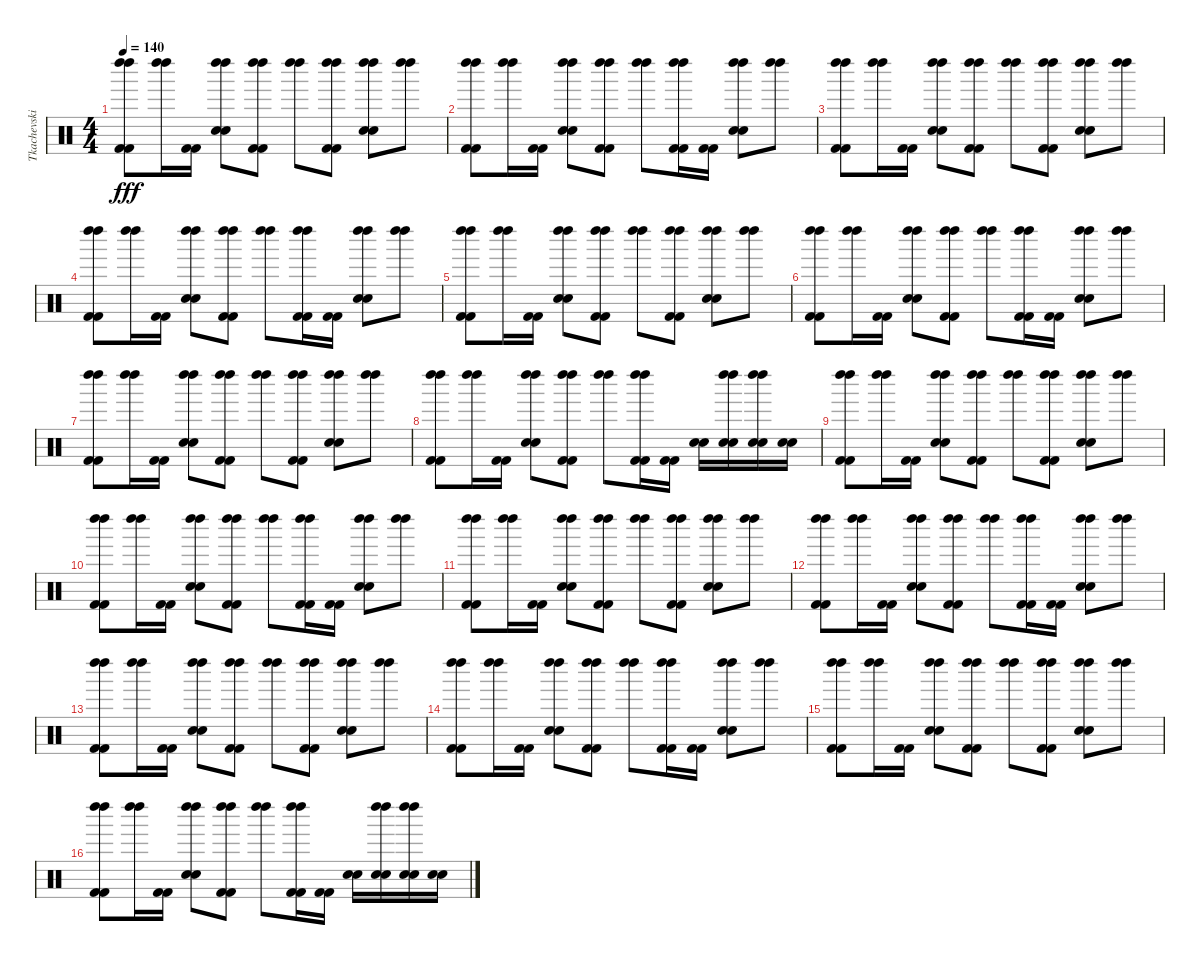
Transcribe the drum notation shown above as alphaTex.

\track ("Tkachevskiy A" "Tkachevski") {instrument percussion}
\staff {score}
\articulation defaults
\ts (4 4)
\tempo 140
\clef neutral
\ks c
("Kick (hit) 2" "Left Maraca (hit)" "Kick (hit) 2" "Left Maraca (hit)").8{dy fff} ("Left Maraca (hit)" "Left Maraca (hit)").16 ("Kick (hit) 2" "Kick (hit) 2").16 ("Snare (hit) 2" "Left Maraca (hit)" "Snare (hit) 2" "Left Maraca (hit)").8 ("Kick (hit) 2" "Left Maraca (hit)" "Kick (hit) 2" "Left Maraca (hit)").8 ("Left Maraca (hit)" "Left Maraca (hit)").8 ("Kick (hit) 2" "Left Maraca (hit)" "Kick (hit) 2" "Left Maraca (hit)").8 ("Snare (hit) 2" "Left Maraca (hit)" "Snare (hit) 2" "Left Maraca (hit)").8 ("Left Maraca (hit)" "Left Maraca (hit)").8 |
("Kick (hit) 2" "Left Maraca (hit)" "Kick (hit) 2" "Left Maraca (hit)").8 ("Left Maraca (hit)" "Left Maraca (hit)").16 ("Kick (hit) 2" "Kick (hit) 2").16 ("Snare (hit) 2" "Left Maraca (hit)" "Snare (hit) 2" "Left Maraca (hit)").8 ("Kick (hit) 2" "Left Maraca (hit)" "Kick (hit) 2" "Left Maraca (hit)").8 ("Left Maraca (hit)" "Left Maraca (hit)").8 ("Kick (hit) 2" "Left Maraca (hit)" "Kick (hit) 2" "Left Maraca (hit)").16 ("Kick (hit) 2" "Kick (hit) 2").16 ("Snare (hit) 2" "Left Maraca (hit)" "Snare (hit) 2" "Left Maraca (hit)").8 ("Left Maraca (hit)" "Left Maraca (hit)").8 |
("Kick (hit) 2" "Left Maraca (hit)" "Kick (hit) 2" "Left Maraca (hit)").8 ("Left Maraca (hit)" "Left Maraca (hit)").16 ("Kick (hit) 2" "Kick (hit) 2").16 ("Snare (hit) 2" "Left Maraca (hit)" "Snare (hit) 2" "Left Maraca (hit)").8 ("Kick (hit) 2" "Left Maraca (hit)" "Kick (hit) 2" "Left Maraca (hit)").8 ("Left Maraca (hit)" "Left Maraca (hit)").8 ("Kick (hit) 2" "Left Maraca (hit)" "Kick (hit) 2" "Left Maraca (hit)").8 ("Snare (hit) 2" "Left Maraca (hit)" "Snare (hit) 2" "Left Maraca (hit)").8 ("Left Maraca (hit)" "Left Maraca (hit)").8 |
("Kick (hit) 2" "Left Maraca (hit)" "Kick (hit) 2" "Left Maraca (hit)").8 ("Left Maraca (hit)" "Left Maraca (hit)").16 ("Kick (hit) 2" "Kick (hit) 2").16 ("Snare (hit) 2" "Left Maraca (hit)" "Snare (hit) 2" "Left Maraca (hit)").8 ("Kick (hit) 2" "Left Maraca (hit)" "Kick (hit) 2" "Left Maraca (hit)").8 ("Left Maraca (hit)" "Left Maraca (hit)").8 ("Kick (hit) 2" "Left Maraca (hit)" "Kick (hit) 2" "Left Maraca (hit)").16 ("Kick (hit) 2" "Kick (hit) 2").16 ("Snare (hit) 2" "Left Maraca (hit)" "Snare (hit) 2" "Left Maraca (hit)").8 ("Left Maraca (hit)" "Left Maraca (hit)").8 |
("Kick (hit) 2" "Left Maraca (hit)" "Kick (hit) 2" "Left Maraca (hit)").8 ("Left Maraca (hit)" "Left Maraca (hit)").16 ("Kick (hit) 2" "Kick (hit) 2").16 ("Snare (hit) 2" "Left Maraca (hit)" "Snare (hit) 2" "Left Maraca (hit)").8 ("Kick (hit) 2" "Left Maraca (hit)" "Kick (hit) 2" "Left Maraca (hit)").8 ("Left Maraca (hit)" "Left Maraca (hit)").8 ("Kick (hit) 2" "Left Maraca (hit)" "Kick (hit) 2" "Left Maraca (hit)").8 ("Snare (hit) 2" "Left Maraca (hit)" "Snare (hit) 2" "Left Maraca (hit)").8 ("Left Maraca (hit)" "Left Maraca (hit)").8 |
("Kick (hit) 2" "Left Maraca (hit)" "Kick (hit) 2" "Left Maraca (hit)").8 ("Left Maraca (hit)" "Left Maraca (hit)").16 ("Kick (hit) 2" "Kick (hit) 2").16 ("Snare (hit) 2" "Left Maraca (hit)" "Snare (hit) 2" "Left Maraca (hit)").8 ("Kick (hit) 2" "Left Maraca (hit)" "Kick (hit) 2" "Left Maraca (hit)").8 ("Left Maraca (hit)" "Left Maraca (hit)").8 ("Kick (hit) 2" "Left Maraca (hit)" "Kick (hit) 2" "Left Maraca (hit)").16 ("Kick (hit) 2" "Kick (hit) 2").16 ("Snare (hit) 2" "Left Maraca (hit)" "Snare (hit) 2" "Left Maraca (hit)").8 ("Left Maraca (hit)" "Left Maraca (hit)").8 |
("Kick (hit) 2" "Left Maraca (hit)" "Kick (hit) 2" "Left Maraca (hit)").8 ("Left Maraca (hit)" "Left Maraca (hit)").16 ("Kick (hit) 2" "Kick (hit) 2").16 ("Snare (hit) 2" "Left Maraca (hit)" "Snare (hit) 2" "Left Maraca (hit)").8 ("Kick (hit) 2" "Left Maraca (hit)" "Kick (hit) 2" "Left Maraca (hit)").8 ("Left Maraca (hit)" "Left Maraca (hit)").8 ("Kick (hit) 2" "Left Maraca (hit)" "Kick (hit) 2" "Left Maraca (hit)").8 ("Snare (hit) 2" "Left Maraca (hit)" "Snare (hit) 2" "Left Maraca (hit)").8 ("Left Maraca (hit)" "Left Maraca (hit)").8 |
("Kick (hit) 2" "Left Maraca (hit)" "Kick (hit) 2" "Left Maraca (hit)").8 ("Left Maraca (hit)" "Left Maraca (hit)").16 ("Kick (hit) 2" "Kick (hit) 2").16 ("Snare (hit) 2" "Left Maraca (hit)" "Snare (hit) 2" "Left Maraca (hit)").8 ("Kick (hit) 2" "Left Maraca (hit)" "Kick (hit) 2" "Left Maraca (hit)").8 ("Left Maraca (hit)" "Left Maraca (hit)").8 ("Kick (hit) 2" "Left Maraca (hit)" "Kick (hit) 2" "Left Maraca (hit)").16 ("Kick (hit) 2" "Kick (hit) 2").16 ("Snare (hit) 2" "Snare (hit) 2").16 ("Snare (hit) 2" "Left Maraca (hit)" "Snare (hit) 2" "Left Maraca (hit)").16 ("Snare (hit) 2" "Left Maraca (hit)" "Snare (hit) 2" "Left Maraca (hit)").16 ("Snare (hit) 2" "Snare (hit) 2").16 |
("Kick (hit) 2" "Left Maraca (hit)" "Kick (hit) 2" "Left Maraca (hit)").8 ("Left Maraca (hit)" "Left Maraca (hit)").16 ("Kick (hit) 2" "Kick (hit) 2").16 ("Snare (hit) 2" "Left Maraca (hit)" "Snare (hit) 2" "Left Maraca (hit)").8 ("Kick (hit) 2" "Left Maraca (hit)" "Kick (hit) 2" "Left Maraca (hit)").8 ("Left Maraca (hit)" "Left Maraca (hit)").8 ("Kick (hit) 2" "Left Maraca (hit)" "Kick (hit) 2" "Left Maraca (hit)").8 ("Snare (hit) 2" "Left Maraca (hit)" "Snare (hit) 2" "Left Maraca (hit)").8 ("Left Maraca (hit)" "Left Maraca (hit)").8 |
("Kick (hit) 2" "Left Maraca (hit)" "Kick (hit) 2" "Left Maraca (hit)").8 ("Left Maraca (hit)" "Left Maraca (hit)").16 ("Kick (hit) 2" "Kick (hit) 2").16 ("Snare (hit) 2" "Left Maraca (hit)" "Snare (hit) 2" "Left Maraca (hit)").8 ("Kick (hit) 2" "Left Maraca (hit)" "Kick (hit) 2" "Left Maraca (hit)").8 ("Left Maraca (hit)" "Left Maraca (hit)").8 ("Kick (hit) 2" "Left Maraca (hit)" "Kick (hit) 2" "Left Maraca (hit)").16 ("Kick (hit) 2" "Kick (hit) 2").16 ("Snare (hit) 2" "Left Maraca (hit)" "Snare (hit) 2" "Left Maraca (hit)").8 ("Left Maraca (hit)" "Left Maraca (hit)").8 |
("Kick (hit) 2" "Left Maraca (hit)" "Kick (hit) 2" "Left Maraca (hit)").8 ("Left Maraca (hit)" "Left Maraca (hit)").16 ("Kick (hit) 2" "Kick (hit) 2").16 ("Snare (hit) 2" "Left Maraca (hit)" "Snare (hit) 2" "Left Maraca (hit)").8 ("Kick (hit) 2" "Left Maraca (hit)" "Kick (hit) 2" "Left Maraca (hit)").8 ("Left Maraca (hit)" "Left Maraca (hit)").8 ("Kick (hit) 2" "Left Maraca (hit)" "Kick (hit) 2" "Left Maraca (hit)").8 ("Snare (hit) 2" "Left Maraca (hit)" "Snare (hit) 2" "Left Maraca (hit)").8 ("Left Maraca (hit)" "Left Maraca (hit)").8 |
("Kick (hit) 2" "Left Maraca (hit)" "Kick (hit) 2" "Left Maraca (hit)").8 ("Left Maraca (hit)" "Left Maraca (hit)").16 ("Kick (hit) 2" "Kick (hit) 2").16 ("Snare (hit) 2" "Left Maraca (hit)" "Snare (hit) 2" "Left Maraca (hit)").8 ("Kick (hit) 2" "Left Maraca (hit)" "Kick (hit) 2" "Left Maraca (hit)").8 ("Left Maraca (hit)" "Left Maraca (hit)").8 ("Kick (hit) 2" "Left Maraca (hit)" "Kick (hit) 2" "Left Maraca (hit)").16 ("Kick (hit) 2" "Kick (hit) 2").16 ("Snare (hit) 2" "Left Maraca (hit)" "Snare (hit) 2" "Left Maraca (hit)").8 ("Left Maraca (hit)" "Left Maraca (hit)").8 |
("Kick (hit) 2" "Left Maraca (hit)" "Kick (hit) 2" "Left Maraca (hit)").8 ("Left Maraca (hit)" "Left Maraca (hit)").16 ("Kick (hit) 2" "Kick (hit) 2").16 ("Snare (hit) 2" "Left Maraca (hit)" "Snare (hit) 2" "Left Maraca (hit)").8 ("Kick (hit) 2" "Left Maraca (hit)" "Kick (hit) 2" "Left Maraca (hit)").8 ("Left Maraca (hit)" "Left Maraca (hit)").8 ("Kick (hit) 2" "Left Maraca (hit)" "Kick (hit) 2" "Left Maraca (hit)").8 ("Snare (hit) 2" "Left Maraca (hit)" "Snare (hit) 2" "Left Maraca (hit)").8 ("Left Maraca (hit)" "Left Maraca (hit)").8 |
("Kick (hit) 2" "Left Maraca (hit)" "Kick (hit) 2" "Left Maraca (hit)").8 ("Left Maraca (hit)" "Left Maraca (hit)").16 ("Kick (hit) 2" "Kick (hit) 2").16 ("Snare (hit) 2" "Left Maraca (hit)" "Snare (hit) 2" "Left Maraca (hit)").8 ("Kick (hit) 2" "Left Maraca (hit)" "Kick (hit) 2" "Left Maraca (hit)").8 ("Left Maraca (hit)" "Left Maraca (hit)").8 ("Kick (hit) 2" "Left Maraca (hit)" "Kick (hit) 2" "Left Maraca (hit)").16 ("Kick (hit) 2" "Kick (hit) 2").16 ("Snare (hit) 2" "Left Maraca (hit)" "Snare (hit) 2" "Left Maraca (hit)").8 ("Left Maraca (hit)" "Left Maraca (hit)").8 |
("Kick (hit) 2" "Left Maraca (hit)" "Kick (hit) 2" "Left Maraca (hit)").8 ("Left Maraca (hit)" "Left Maraca (hit)").16 ("Kick (hit) 2" "Kick (hit) 2").16 ("Snare (hit) 2" "Left Maraca (hit)" "Snare (hit) 2" "Left Maraca (hit)").8 ("Kick (hit) 2" "Left Maraca (hit)" "Kick (hit) 2" "Left Maraca (hit)").8 ("Left Maraca (hit)" "Left Maraca (hit)").8 ("Kick (hit) 2" "Left Maraca (hit)" "Kick (hit) 2" "Left Maraca (hit)").8 ("Snare (hit) 2" "Left Maraca (hit)" "Snare (hit) 2" "Left Maraca (hit)").8 ("Left Maraca (hit)" "Left Maraca (hit)").8 |
("Kick (hit) 2" "Left Maraca (hit)" "Kick (hit) 2" "Left Maraca (hit)").8 ("Left Maraca (hit)" "Left Maraca (hit)").16 ("Kick (hit) 2" "Kick (hit) 2").16 ("Snare (hit) 2" "Left Maraca (hit)" "Snare (hit) 2" "Left Maraca (hit)").8 ("Kick (hit) 2" "Left Maraca (hit)" "Kick (hit) 2" "Left Maraca (hit)").8 ("Left Maraca (hit)" "Left Maraca (hit)").8 ("Kick (hit) 2" "Left Maraca (hit)" "Kick (hit) 2" "Left Maraca (hit)").16 ("Kick (hit) 2" "Kick (hit) 2").16 ("Snare (hit) 2" "Snare (hit) 2").16 ("Snare (hit) 2" "Left Maraca (hit)" "Snare (hit) 2" "Left Maraca (hit)").16 ("Snare (hit) 2" "Left Maraca (hit)" "Snare (hit) 2" "Left Maraca (hit)").16 ("Snare (hit) 2" "Snare (hit) 2").16
